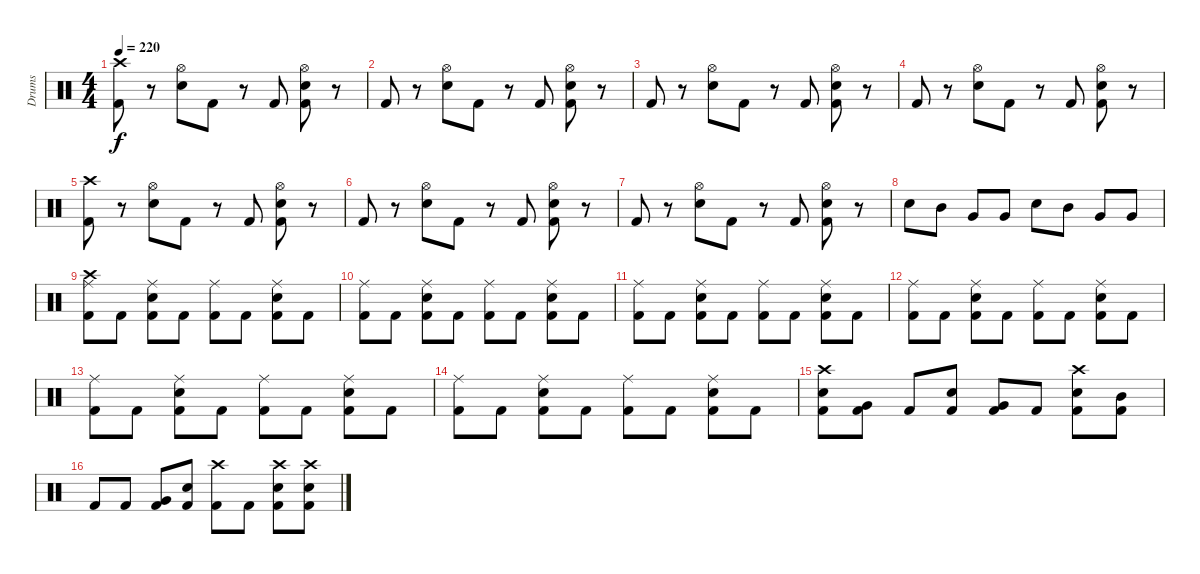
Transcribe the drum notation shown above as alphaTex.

\track ("Drums" "Drums") {instrument percussion}
\staff {score}
\articulation defaults
\ts (4 4)
\tempo 220
\clef neutral
\ks c
("Crash high (hit)" "Kick (hit) 2").8{dy f} r.8 ("Electric Snare (hit)" "Hi-Hat (open)").8 "Kick (hit) 2".8 r.8 "Kick (hit) 2".8 ("Electric Snare (hit)" "Hi-Hat (open)" "Kick (hit) 2").8 r.8 |
"Kick (hit) 2".8 r.8 ("Electric Snare (hit)" "Hi-Hat (open)").8 "Kick (hit) 2".8 r.8 "Kick (hit) 2".8 ("Electric Snare (hit)" "Hi-Hat (open)" "Kick (hit) 2").8 r.8 |
"Kick (hit) 2".8 r.8 ("Electric Snare (hit)" "Hi-Hat (open)").8 "Kick (hit) 2".8 r.8 "Kick (hit) 2".8 ("Electric Snare (hit)" "Hi-Hat (open)" "Kick (hit) 2").8 r.8 |
"Kick (hit) 2".8 r.8 ("Electric Snare (hit)" "Hi-Hat (open)").8 "Kick (hit) 2".8 r.8 "Kick (hit) 2".8 ("Electric Snare (hit)" "Hi-Hat (open)" "Kick (hit) 2").8 r.8 |
("Crash high (hit)" "Kick (hit) 2").8 r.8 ("Electric Snare (hit)" "Hi-Hat (open)").8 "Kick (hit) 2".8 r.8 "Kick (hit) 2".8 ("Electric Snare (hit)" "Hi-Hat (open)" "Kick (hit) 2").8 r.8 |
"Kick (hit) 2".8 r.8 ("Electric Snare (hit)" "Hi-Hat (open)").8 "Kick (hit) 2".8 r.8 "Kick (hit) 2".8 ("Electric Snare (hit)" "Hi-Hat (open)" "Kick (hit) 2").8 r.8 |
"Kick (hit) 2".8 r.8 ("Electric Snare (hit)" "Hi-Hat (open)").8 "Kick (hit) 2".8 r.8 "Kick (hit) 2".8 ("Electric Snare (hit)" "Hi-Hat (open)" "Kick (hit) 2").8 r.8 |
"Electric Snare (hit)".8 "Mid Tom (hit)".8 "Very Low Tom (hit)".8 "Very Low Tom (hit)".8 "Electric Snare (hit)".8 "Mid Tom (hit)".8 "Very Low Tom (hit)".8 "Very Low Tom (hit)".8 |
("Crash high (hit)" "Ride (middle)" "Kick (hit) 2").8 "Kick (hit) 2".8 ("Electric Snare (hit)" "Ride (middle)" "Kick (hit) 2").8 "Kick (hit) 2".8 ("Ride (middle)" "Kick (hit) 2").8 "Kick (hit) 2".8 ("Electric Snare (hit)" "Ride (middle)" "Kick (hit) 2").8 "Kick (hit) 2".8 |
("Ride (middle)" "Kick (hit) 2").8 "Kick (hit) 2".8 ("Electric Snare (hit)" "Ride (middle)" "Kick (hit) 2").8 "Kick (hit) 2".8 ("Ride (middle)" "Kick (hit) 2").8 "Kick (hit) 2".8 ("Electric Snare (hit)" "Ride (middle)" "Kick (hit) 2").8 "Kick (hit) 2".8 |
("Ride (middle)" "Kick (hit) 2").8 "Kick (hit) 2".8 ("Electric Snare (hit)" "Ride (middle)" "Kick (hit) 2").8 "Kick (hit) 2".8 ("Ride (middle)" "Kick (hit) 2").8 "Kick (hit) 2".8 ("Electric Snare (hit)" "Ride (middle)" "Kick (hit) 2").8 "Kick (hit) 2".8 |
("Ride (middle)" "Kick (hit) 2").8 "Kick (hit) 2".8 ("Electric Snare (hit)" "Ride (middle)" "Kick (hit) 2").8 "Kick (hit) 2".8 ("Ride (middle)" "Kick (hit) 2").8 "Kick (hit) 2".8 ("Electric Snare (hit)" "Ride (middle)" "Kick (hit) 2").8 "Kick (hit) 2".8 |
("Ride (middle)" "Kick (hit) 2").8 "Kick (hit) 2".8 ("Electric Snare (hit)" "Ride (middle)" "Kick (hit) 2").8 "Kick (hit) 2".8 ("Ride (middle)" "Kick (hit) 2").8 "Kick (hit) 2".8 ("Electric Snare (hit)" "Ride (middle)" "Kick (hit) 2").8 "Kick (hit) 2".8 |
("Ride (middle)" "Kick (hit) 2").8 "Kick (hit) 2".8 ("Electric Snare (hit)" "Ride (middle)" "Kick (hit) 2").8 "Kick (hit) 2".8 ("Ride (middle)" "Kick (hit) 2").8 "Kick (hit) 2".8 ("Electric Snare (hit)" "Ride (middle)" "Kick (hit) 2").8 "Kick (hit) 2".8 |
("Crash high (hit)" "Electric Snare (hit)" "Kick (hit) 2").8 ("Very Low Tom (hit)" "Kick (hit) 2").8 "Kick (hit) 2".8 ("Electric Snare (hit)" "Kick (hit) 2").8 ("Very Low Tom (hit)" "Kick (hit) 2").8 "Kick (hit) 2".8 ("Crash high (hit)" "Electric Snare (hit)" "Kick (hit) 2").8 ("Mid Tom (hit)" "Kick (hit) 2").8 |
"Kick (hit) 2".8 "Kick (hit) 2".8 ("Very Low Tom (hit)" "Kick (hit) 2").8 ("Electric Snare (hit)" "Kick (hit) 2").8 ("Crash high (hit)" "Kick (hit) 2").8 "Kick (hit) 2".8 ("Crash high (hit)" "Electric Snare (hit)" "Kick (hit) 2").8 ("Crash high (hit)" "Electric Snare (hit)" "Kick (hit) 2").8
